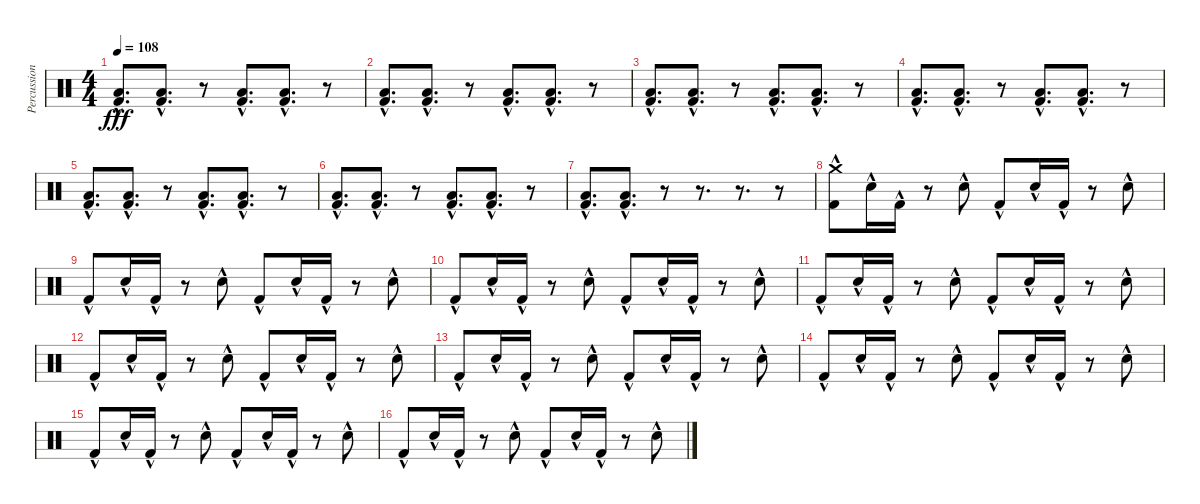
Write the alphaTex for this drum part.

\track ("Percussioni" "Percussion") {instrument percussion}
\staff {score}
\articulation defaults
\ts (4 4)
\tempo 108
\clef neutral
\ks c
("Low Floor Tom (hit)"{hac} "Kick (hit) 2"{hac}).8{d dy fff} ("Low Floor Tom (hit)" "Kick (hit) 2"{hac}).8{d} r.8 ("Low Floor Tom (hit)" "Kick (hit) 2"{hac}).8{d} ("Low Floor Tom (hit)" "Kick (hit) 2"{hac}).8{d} r.8 |
("Low Floor Tom (hit)"{hac} "Kick (hit) 2"{hac}).8{d} ("Low Floor Tom (hit)" "Kick (hit) 2"{hac}).8{d} r.8 ("Low Floor Tom (hit)" "Kick (hit) 2"{hac}).8{d} ("Low Floor Tom (hit)" "Kick (hit) 2"{hac}).8{d} r.8 |
("Low Floor Tom (hit)"{hac} "Kick (hit) 2"{hac}).8{d} ("Low Floor Tom (hit)" "Kick (hit) 2"{hac}).8{d} r.8 ("Low Floor Tom (hit)" "Kick (hit) 2"{hac}).8{d} ("Low Floor Tom (hit)" "Kick (hit) 2"{hac}).8{d} r.8 |
("Low Floor Tom (hit)"{hac} "Kick (hit) 2"{hac}).8{d} ("Low Floor Tom (hit)" "Kick (hit) 2"{hac}).8{d} r.8 ("Low Floor Tom (hit)" "Kick (hit) 2"{hac}).8{d} ("Low Floor Tom (hit)" "Kick (hit) 2"{hac}).8{d} r.8 |
("Low Floor Tom (hit)"{hac} "Kick (hit) 2"{hac}).8{d} ("Low Floor Tom (hit)" "Kick (hit) 2"{hac}).8{d} r.8 ("Low Floor Tom (hit)" "Kick (hit) 2"{hac}).8{d} ("Low Floor Tom (hit)" "Kick (hit) 2"{hac}).8{d} r.8 |
("Low Floor Tom (hit)"{hac} "Kick (hit) 2"{hac}).8{d} ("Low Floor Tom (hit)" "Kick (hit) 2"{hac}).8{d} r.8 ("Low Floor Tom (hit)" "Kick (hit) 2"{hac}).8{d} ("Low Floor Tom (hit)" "Kick (hit) 2"{hac}).8{d} r.8 |
("Low Floor Tom (hit)"{hac} "Kick (hit) 2"{hac}).8{d} ("Low Floor Tom (hit)" "Kick (hit) 2"{hac}).8{d} r.8 r.8{d} r.8{d} r.8 |
("Crash medium (hit)" "Kick (hit) 2"{hac}).8 "Snare (hit) 2"{hac}.16 "Kick (hit) 2"{hac}.16 r.8 "Snare (hit) 2"{hac}.8 "Kick (hit) 2"{hac}.8 "Snare (hit) 2"{hac}.16 "Kick (hit) 2"{hac}.16 r.8 "Snare (hit) 2"{hac}.8 |
"Kick (hit) 2"{hac}.8 "Snare (hit) 2"{hac}.16 "Kick (hit) 2"{hac}.16 r.8 "Snare (hit) 2"{hac}.8 "Kick (hit) 2"{hac}.8 "Snare (hit) 2"{hac}.16 "Kick (hit) 2"{hac}.16 r.8 "Snare (hit) 2"{hac}.8 |
"Kick (hit) 2"{hac}.8 "Snare (hit) 2"{hac}.16 "Kick (hit) 2"{hac}.16 r.8 "Snare (hit) 2"{hac}.8 "Kick (hit) 2"{hac}.8 "Snare (hit) 2"{hac}.16 "Kick (hit) 2"{hac}.16 r.8 "Snare (hit) 2"{hac}.8 |
"Kick (hit) 2"{hac}.8 "Snare (hit) 2"{hac}.16 "Kick (hit) 2"{hac}.16 r.8 "Snare (hit) 2"{hac}.8 "Kick (hit) 2"{hac}.8 "Snare (hit) 2"{hac}.16 "Kick (hit) 2"{hac}.16 r.8 "Snare (hit) 2"{hac}.8 |
"Kick (hit) 2"{hac}.8 "Snare (hit) 2"{hac}.16 "Kick (hit) 2"{hac}.16 r.8 "Snare (hit) 2"{hac}.8 "Kick (hit) 2"{hac}.8 "Snare (hit) 2"{hac}.16 "Kick (hit) 2"{hac}.16 r.8 "Snare (hit) 2"{hac}.8 |
"Kick (hit) 2"{hac}.8 "Snare (hit) 2"{hac}.16 "Kick (hit) 2"{hac}.16 r.8 "Snare (hit) 2"{hac}.8 "Kick (hit) 2"{hac}.8 "Snare (hit) 2"{hac}.16 "Kick (hit) 2"{hac}.16 r.8 "Snare (hit) 2"{hac}.8 |
"Kick (hit) 2"{hac}.8 "Snare (hit) 2"{hac}.16 "Kick (hit) 2"{hac}.16 r.8 "Snare (hit) 2"{hac}.8 "Kick (hit) 2"{hac}.8 "Snare (hit) 2"{hac}.16 "Kick (hit) 2"{hac}.16 r.8 "Snare (hit) 2"{hac}.8 |
"Kick (hit) 2"{hac}.8 "Snare (hit) 2"{hac}.16 "Kick (hit) 2"{hac}.16 r.8 "Snare (hit) 2"{hac}.8 "Kick (hit) 2"{hac}.8 "Snare (hit) 2"{hac}.16 "Kick (hit) 2"{hac}.16 r.8 "Snare (hit) 2"{hac}.8 |
"Kick (hit) 2"{hac}.8 "Snare (hit) 2"{hac}.16 "Kick (hit) 2"{hac}.16 r.8 "Snare (hit) 2"{hac}.8 "Kick (hit) 2"{hac}.8 "Snare (hit) 2"{hac}.16 "Kick (hit) 2"{hac}.16 r.8 "Snare (hit) 2"{hac}.8
